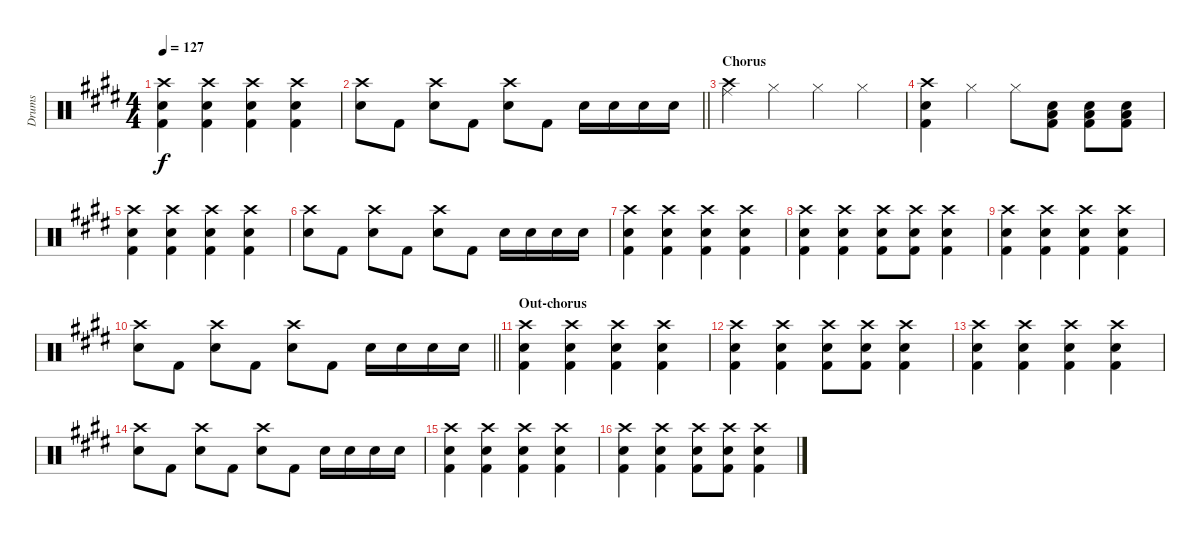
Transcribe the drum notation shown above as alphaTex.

\track ("Drums" "Drums") {instrument percussion}
\staff {score}
\articulation defaults
\ts (4 4)
\tempo 127
\clef neutral
\ks e
("Crash high (hit)" "Electric Snare (hit)" "Kick (hit) 2").4{dy f} ("Crash high (hit)" "Electric Snare (hit)" "Kick (hit) 2").4 ("Crash high (hit)" "Electric Snare (hit)" "Kick (hit) 2").4 ("Crash high (hit)" "Electric Snare (hit)" "Kick (hit) 2").4 |
\barLineRight lightlight
("Crash high (hit)" "Electric Snare (hit)").8 "Kick (hit) 2".8 ("Crash high (hit)" "Electric Snare (hit)").8 "Kick (hit) 2".8 ("Crash high (hit)" "Electric Snare (hit)").8 "Kick (hit) 2".8 "Electric Snare (hit)".16 "Electric Snare (hit)".16 "Electric Snare (hit)".16 "Electric Snare (hit)".16 |
\section ("" "Chorus")
("Ride (middle)" "Crash high (hit)").4 "Hi-Hat (closed)".4 "Hi-Hat (closed)".4 "Hi-Hat (closed)".4 |
("Crash high (hit)" "Electric Snare (hit)" "Kick (hit) 2").4 "Hi-Hat (closed)".4 "Hi-Hat (closed)".8 ("Low Floor Tom (hit)" "Electric Snare (hit)" "Kick (hit) 2").8 ("Low Floor Tom (hit)" "Electric Snare (hit)" "Kick (hit) 2").8 ("Low Floor Tom (hit)" "Electric Snare (hit)" "Kick (hit) 2").8 |
("Crash high (hit)" "Electric Snare (hit)" "Kick (hit) 2").4 ("Crash high (hit)" "Electric Snare (hit)" "Kick (hit) 2").4 ("Crash high (hit)" "Electric Snare (hit)" "Kick (hit) 2").4 ("Crash high (hit)" "Electric Snare (hit)" "Kick (hit) 2").4 |
("Crash high (hit)" "Electric Snare (hit)").8 "Kick (hit) 2".8 ("Crash high (hit)" "Electric Snare (hit)").8 "Kick (hit) 2".8 ("Crash high (hit)" "Electric Snare (hit)").8 "Kick (hit) 2".8 "Electric Snare (hit)".16 "Electric Snare (hit)".16 "Electric Snare (hit)".16 "Electric Snare (hit)".16 |
("Crash high (hit)" "Electric Snare (hit)" "Kick (hit) 2").4 ("Crash high (hit)" "Electric Snare (hit)" "Kick (hit) 2").4 ("Crash high (hit)" "Electric Snare (hit)" "Kick (hit) 2").4 ("Crash high (hit)" "Electric Snare (hit)" "Kick (hit) 2").4 |
("Crash high (hit)" "Electric Snare (hit)" "Kick (hit) 2").4 ("Crash high (hit)" "Electric Snare (hit)" "Kick (hit) 2").4 ("Crash high (hit)" "Electric Snare (hit)" "Kick (hit) 2").8 ("Crash high (hit)" "Electric Snare (hit)" "Kick (hit) 2").8 ("Crash high (hit)" "Electric Snare (hit)" "Kick (hit) 2").4 |
("Crash high (hit)" "Electric Snare (hit)" "Kick (hit) 2").4 ("Crash high (hit)" "Electric Snare (hit)" "Kick (hit) 2").4 ("Crash high (hit)" "Electric Snare (hit)" "Kick (hit) 2").4 ("Crash high (hit)" "Electric Snare (hit)" "Kick (hit) 2").4 |
\barLineRight lightlight
("Crash high (hit)" "Electric Snare (hit)").8 "Kick (hit) 2".8 ("Crash high (hit)" "Electric Snare (hit)").8 "Kick (hit) 2".8 ("Crash high (hit)" "Electric Snare (hit)").8 "Kick (hit) 2".8 "Electric Snare (hit)".16 "Electric Snare (hit)".16 "Electric Snare (hit)".16 "Electric Snare (hit)".16 |
\section ("" "Out-chorus")
("Crash high (hit)" "Electric Snare (hit)" "Kick (hit) 2").4 ("Crash high (hit)" "Electric Snare (hit)" "Kick (hit) 2").4 ("Crash high (hit)" "Electric Snare (hit)" "Kick (hit) 2").4 ("Crash high (hit)" "Electric Snare (hit)" "Kick (hit) 2").4 |
("Crash high (hit)" "Electric Snare (hit)" "Kick (hit) 2").4 ("Crash high (hit)" "Electric Snare (hit)" "Kick (hit) 2").4 ("Crash high (hit)" "Electric Snare (hit)" "Kick (hit) 2").8 ("Crash high (hit)" "Electric Snare (hit)" "Kick (hit) 2").8 ("Crash high (hit)" "Electric Snare (hit)" "Kick (hit) 2").4 |
("Crash high (hit)" "Electric Snare (hit)" "Kick (hit) 2").4 ("Crash high (hit)" "Electric Snare (hit)" "Kick (hit) 2").4 ("Crash high (hit)" "Electric Snare (hit)" "Kick (hit) 2").4 ("Crash high (hit)" "Electric Snare (hit)" "Kick (hit) 2").4 |
("Crash high (hit)" "Electric Snare (hit)").8 "Kick (hit) 2".8 ("Crash high (hit)" "Electric Snare (hit)").8 "Kick (hit) 2".8 ("Crash high (hit)" "Electric Snare (hit)").8 "Kick (hit) 2".8 "Electric Snare (hit)".16 "Electric Snare (hit)".16 "Electric Snare (hit)".16 "Electric Snare (hit)".16 |
("Crash high (hit)" "Electric Snare (hit)" "Kick (hit) 2").4 ("Crash high (hit)" "Electric Snare (hit)" "Kick (hit) 2").4 ("Crash high (hit)" "Electric Snare (hit)" "Kick (hit) 2").4 ("Crash high (hit)" "Electric Snare (hit)" "Kick (hit) 2").4 |
("Crash high (hit)" "Electric Snare (hit)" "Kick (hit) 2").4 ("Crash high (hit)" "Electric Snare (hit)" "Kick (hit) 2").4 ("Crash high (hit)" "Electric Snare (hit)" "Kick (hit) 2").8 ("Crash high (hit)" "Electric Snare (hit)" "Kick (hit) 2").8 ("Crash high (hit)" "Electric Snare (hit)" "Kick (hit) 2").4
